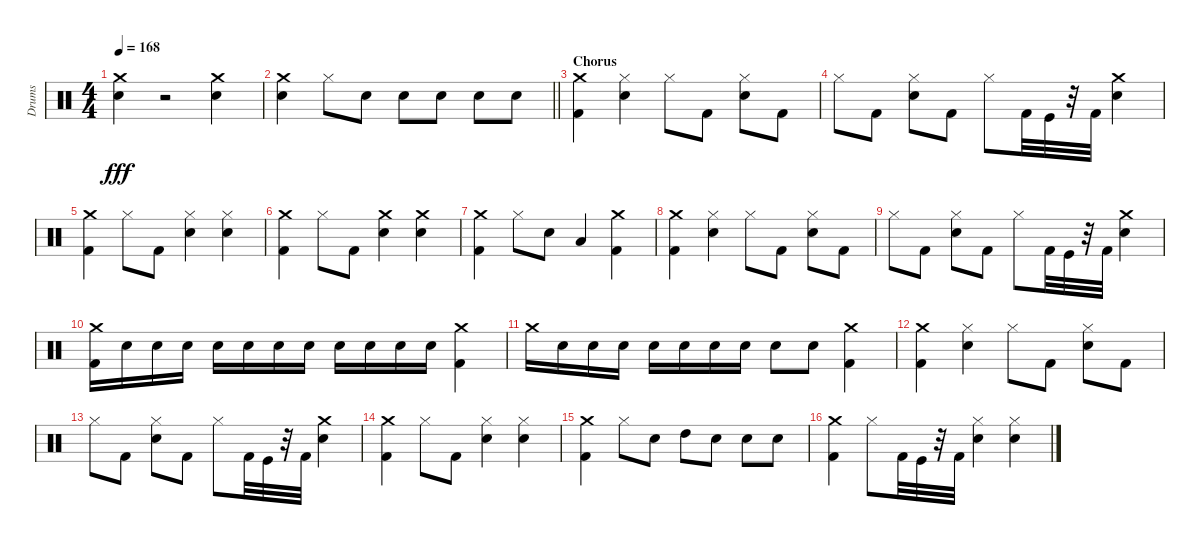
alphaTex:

\track ("Drums" "Drums") {instrument percussion}
\staff {score}
\articulation defaults
\ts (4 4)
\tempo 168
\clef neutral
\ks c
("Snare (hit) 2" "Crash medium (hit)").4{dy fff} r.2 ("Crash medium (hit)" "Snare (hit) 2").4 |
\barLineRight lightlight
("Snare (hit) 2" "Crash medium (hit)").4 "Hi-Hat (closed)".8 "Snare (hit) 2".8 "Snare (hit) 2".8 "Snare (hit) 2".8 "Snare (hit) 2".8 "Snare (hit) 2".8 |
\section ("" "Chorus")
("Kick (hit) 2" "Crash medium (hit)").4 ("Hi-Hat (closed)" "Snare (hit) 2").4 "Hi-Hat (closed)".8 "Kick (hit) 2".8 ("Snare (hit) 2" "Hi-Hat (closed)").8 "Kick (hit) 2".8 |
"Hi-Hat (closed)".8 "Kick (hit) 2".8 ("Snare (hit) 2" "Hi-Hat (closed)").8 "Kick (hit) 2".8 "Hi-Hat (closed)".8 "Kick (hit) 2".32 "Kick (hit)".32 r.32 "Kick (hit) 2".32 ("Crash medium (hit)" "Snare (hit) 2").4 |
("Kick (hit) 2" "Crash medium (hit)").4 "Hi-Hat (closed)".8 "Kick (hit) 2".8 ("Snare (hit) 2" "Hi-Hat (closed)").4 ("Hi-Hat (closed)" "Snare (hit) 2").4 |
("Kick (hit) 2" "Crash medium (hit)").4 "Hi-Hat (closed)".8 "Kick (hit) 2".8 ("Crash medium (hit)" "Snare (hit) 2").4 ("Snare (hit) 2" "Crash medium (hit)").4 |
("Kick (hit) 2" "Crash medium (hit)").4 "Hi-Hat (closed)".8 "Snare (hit) 2".8 "Low Tom (hit)".4 ("Kick (hit) 2" "Crash medium (hit)").4 |
("Kick (hit) 2" "Crash medium (hit)").4 ("Hi-Hat (closed)" "Snare (hit) 2").4 "Hi-Hat (closed)".8 "Kick (hit) 2".8 ("Snare (hit) 2" "Hi-Hat (closed)").8 "Kick (hit) 2".8 |
"Hi-Hat (closed)".8 "Kick (hit) 2".8 ("Snare (hit) 2" "Hi-Hat (closed)").8 "Kick (hit) 2".8 "Hi-Hat (closed)".8 "Kick (hit) 2".32 "Kick (hit)".32 r.32 "Kick (hit) 2".32 ("Crash medium (hit)" "Snare (hit) 2").4 |
("Kick (hit) 2" "Crash medium (hit)").16 "Snare (hit) 2".16 "Snare (hit) 2".16 "Snare (hit) 2".16 "Snare (hit) 2".16 "Snare (hit) 2".16 "Snare (hit) 2".16 "Snare (hit) 2".16 "Snare (hit) 2".16 "Snare (hit) 2".16 "Snare (hit) 2".16 "Snare (hit) 2".16 ("Kick (hit) 2" "Crash medium (hit)").4 |
"Crash medium (hit)".16 "Snare (hit) 2".16 "Snare (hit) 2".16 "Snare (hit) 2".16 "Snare (hit) 2".16 "Snare (hit) 2".16 "Snare (hit) 2".16 "Snare (hit) 2".16 "Snare (hit) 2".8 "Snare (hit) 2".8 ("Crash medium (hit)" "Kick (hit) 2").4 |
("Kick (hit) 2" "Crash medium (hit)").4 ("Hi-Hat (closed)" "Snare (hit) 2").4 "Hi-Hat (closed)".8 "Kick (hit) 2".8 ("Snare (hit) 2" "Hi-Hat (closed)").8 "Kick (hit) 2".8 |
"Hi-Hat (closed)".8 "Kick (hit) 2".8 ("Snare (hit) 2" "Hi-Hat (closed)").8 "Kick (hit) 2".8 "Hi-Hat (closed)".8 "Kick (hit) 2".32 "Kick (hit)".32 r.32 "Kick (hit) 2".32 ("Crash medium (hit)" "Snare (hit) 2").4 |
("Kick (hit) 2" "Crash medium (hit)").4 "Hi-Hat (closed)".8 "Kick (hit) 2".8 ("Snare (hit) 2" "Hi-Hat (closed)").4 ("Hi-Hat (closed)" "Snare (hit) 2").4 |
("Kick (hit) 2" "Crash medium (hit)").4 "Hi-Hat (closed)".8 "Snare (hit) 2".8 "High Tom (hit)".8 "Snare (hit) 2".8 "Snare (hit) 2".8 "Snare (hit) 2".8 |
("Kick (hit) 2" "Crash medium (hit)").4 "Hi-Hat (closed)".8 "Kick (hit) 2".32 "Kick (hit)".32 r.32 "Kick (hit) 2".32 ("Snare (hit) 2" "Hi-Hat (closed)").4 ("Hi-Hat (closed)" "Snare (hit) 2").4
